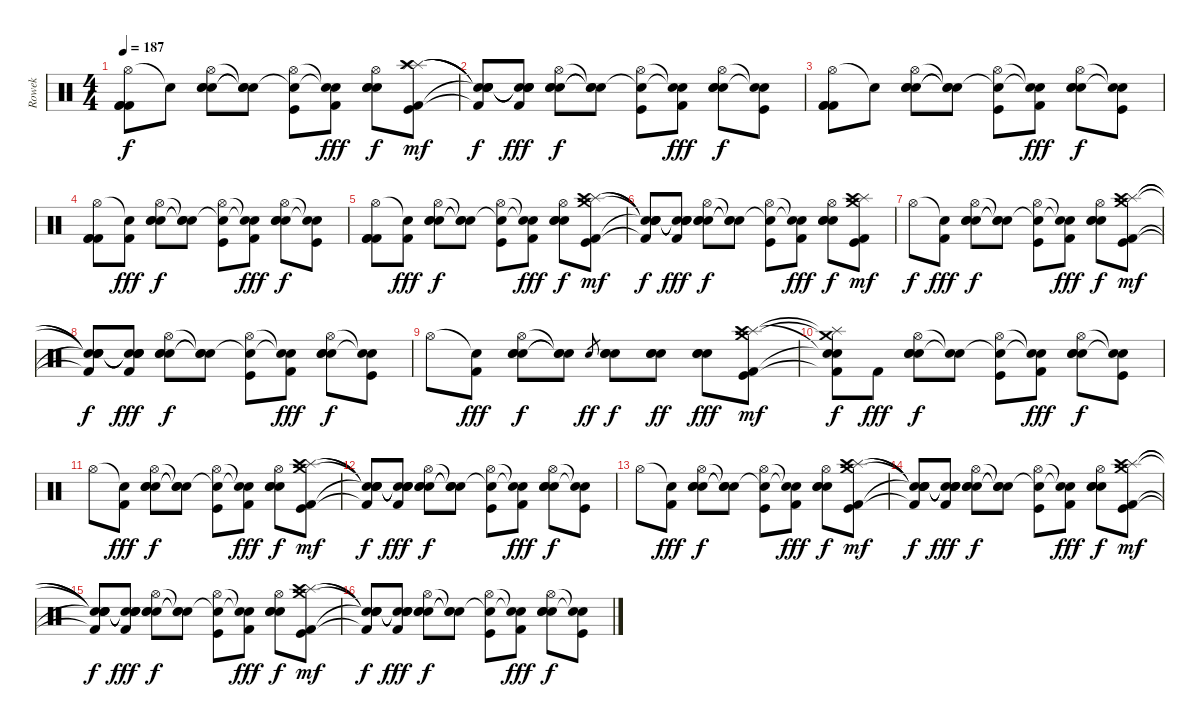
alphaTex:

\track ("Rowek" "Rowek") {instrument percussion}
\staff {score}
\articulation defaults
\ts (4 4)
\tempo 187
\clef neutral
\ks c
("Hi-Hat (open)" "Kick (hit) 2" "Kick (hit) 2" "Kick (hit) 2").8{dy f} "Snare (hit)"{t}.8 ("Hi-Hat (open)" "Electric Snare (hit)" "Electric Snare (hit)" "Electric Snare (hit)").8 ("Snare (hit)"{t} "Snare (hit)"{t} "Snare (hit)"{t}).8 ("Hi-Hat (open)" "Snare (hit)"{t} "Kick (hit)").8 ("Snare (hit)"{t} "Snare (hit)"{t} "Kick (hit) 2").8{dy fff} ("Hi-Hat (open)" "Electric Snare (hit)" "Electric Snare (hit)" "Electric Snare (hit)").8{dy f} ("Splash (hit)" "Splash (hit)" "Crash high (hit)" "Kick (hit) 2" "Kick (hit)").8{dy mf} |
("Snare (hit)"{t} "Snare (hit)"{t} "Snare (hit)"{t} "Snare (hit)"{t} "Kick (hit) 2"{t}).8{dy f} ("Snare (hit)"{t} "Snare (hit)"{t} "Snare (hit)"{t} "Snare (hit)"{t} "Kick (hit) 2").8{dy fff} ("Hi-Hat (open)" "Electric Snare (hit)" "Electric Snare (hit)" "Electric Snare (hit)").8{dy f} ("Snare (hit)"{t} "Snare (hit)"{t} "Snare (hit)"{t}).8 ("Hi-Hat (open)" "Snare (hit)"{t} "Kick (hit)").8 ("Snare (hit)"{t} "Snare (hit)"{t} "Kick (hit) 2").8{dy fff} ("Hi-Hat (open)" "Electric Snare (hit)" "Electric Snare (hit)" "Electric Snare (hit)").8{dy f} ("Snare (hit)"{t} "Snare (hit)"{t} "Kick (hit)").8 |
("Hi-Hat (open)" "Kick (hit) 2" "Kick (hit) 2" "Kick (hit) 2").8 "Snare (hit)"{t}.8 ("Hi-Hat (open)" "Electric Snare (hit)" "Electric Snare (hit)" "Electric Snare (hit)").8 ("Snare (hit)"{t} "Snare (hit)"{t} "Snare (hit)"{t}).8 ("Hi-Hat (open)" "Snare (hit)"{t} "Kick (hit)").8 ("Snare (hit)"{t} "Snare (hit)"{t} "Kick (hit) 2").8{dy fff} ("Hi-Hat (open)" "Electric Snare (hit)" "Electric Snare (hit)" "Electric Snare (hit)").8{dy f} ("Snare (hit)"{t} "Snare (hit)"{t} "Kick (hit)").8 |
("Hi-Hat (open)" "Kick (hit) 2" "Kick (hit) 2" "Kick (hit) 2").8 ("Snare (hit)"{t} "Kick (hit) 2").8{dy fff} ("Hi-Hat (open)" "Electric Snare (hit)" "Electric Snare (hit)" "Electric Snare (hit)").8{dy f} ("Snare (hit)"{t} "Snare (hit)"{t} "Snare (hit)"{t}).8 ("Hi-Hat (open)" "Snare (hit)"{t} "Kick (hit)").8 ("Snare (hit)"{t} "Snare (hit)"{t} "Kick (hit) 2").8{dy fff} ("Hi-Hat (open)" "Electric Snare (hit)" "Electric Snare (hit)" "Electric Snare (hit)").8{dy f} ("Snare (hit)"{t} "Snare (hit)"{t} "Kick (hit)").8 |
("Hi-Hat (open)" "Kick (hit) 2" "Kick (hit) 2" "Kick (hit) 2").8 ("Snare (hit)"{t} "Kick (hit) 2").8{dy fff} ("Hi-Hat (open)" "Electric Snare (hit)" "Electric Snare (hit)" "Electric Snare (hit)").8{dy f} ("Snare (hit)"{t} "Snare (hit)"{t} "Snare (hit)"{t}).8 ("Hi-Hat (open)" "Snare (hit)"{t} "Kick (hit)").8 ("Snare (hit)"{t} "Snare (hit)"{t} "Kick (hit) 2").8{dy fff} ("Hi-Hat (open)" "Electric Snare (hit)" "Electric Snare (hit)" "Electric Snare (hit)").8{dy f} ("Crash medium (hit)" "Splash (hit)" "Crash high (hit)" "Kick (hit) 2" "Kick (hit)").8{dy mf} |
("Snare (hit)"{t} "Snare (hit)"{t} "Snare (hit)"{t} "Snare (hit)"{t} "Kick (hit) 2"{t}).8{dy f} ("Snare (hit)"{t} "Snare (hit)"{t} "Snare (hit)"{t} "Snare (hit)"{t} "Kick (hit) 2").8{dy fff} ("Hi-Hat (open)" "Electric Snare (hit)" "Electric Snare (hit)" "Electric Snare (hit)").8{dy f} ("Snare (hit)"{t} "Snare (hit)"{t} "Snare (hit)"{t}).8 ("Hi-Hat (open)" "Snare (hit)"{t} "Kick (hit)").8 ("Snare (hit)"{t} "Snare (hit)"{t} "Kick (hit) 2").8{dy fff} ("Hi-Hat (open)" "Electric Snare (hit)" "Electric Snare (hit)" "Electric Snare (hit)").8{dy f} ("Crash medium (hit)" "Splash (hit)" "Crash high (hit)" "Kick (hit) 2" "Kick (hit)").8{dy mf} |
"Hi-Hat (open)".8{dy f} ("Snare (hit)"{t} "Kick (hit) 2").8{dy fff} ("Hi-Hat (open)" "Electric Snare (hit)" "Electric Snare (hit)" "Electric Snare (hit)").8{dy f} ("Snare (hit)"{t} "Snare (hit)"{t} "Snare (hit)"{t}).8 ("Hi-Hat (open)" "Snare (hit)"{t} "Kick (hit)").8 ("Snare (hit)"{t} "Snare (hit)"{t} "Kick (hit) 2").8{dy fff} ("Hi-Hat (open)" "Electric Snare (hit)" "Electric Snare (hit)" "Electric Snare (hit)").8{dy f} ("Crash medium (hit)" "Splash (hit)" "Crash high (hit)" "Kick (hit) 2" "Kick (hit)").8{dy mf} |
("Snare (hit)"{t} "Snare (hit)"{t} "Snare (hit)"{t} "Snare (hit)"{t} "Kick (hit) 2"{t}).8{dy f} ("Snare (hit)"{t} "Snare (hit)"{t} "Snare (hit)"{t} "Snare (hit)"{t} "Kick (hit) 2").8{dy fff} ("Hi-Hat (open)" "Electric Snare (hit)" "Electric Snare (hit)" "Electric Snare (hit)").8{dy f} ("Snare (hit)"{t} "Snare (hit)"{t} "Snare (hit)"{t}).8 ("Hi-Hat (open)" "Snare (hit)"{t} "Kick (hit)").8 ("Snare (hit)"{t} "Snare (hit)"{t} "Kick (hit) 2").8{dy fff} ("Hi-Hat (open)" "Electric Snare (hit)" "Electric Snare (hit)" "Electric Snare (hit)").8{dy f} ("Snare (hit)"{t} "Snare (hit)"{t} "Kick (hit)").8 |
"Hi-Hat (open)".8 ("Snare (hit)"{t} "Kick (hit) 2").8{dy fff} ("Hi-Hat (open)" "Electric Snare (hit)" "Electric Snare (hit)" "Electric Snare (hit)").8{dy f} ("Snare (hit)"{t} "Snare (hit)"{t} "Snare (hit)"{t}).8 "Electric Snare (hit)".8{gr dy ff} ("Electric Snare (hit)" "Electric Snare (hit)" "Electric Snare (hit)").8{dy f} ("Electric Snare (hit)" "Electric Snare (hit)" "Electric Snare (hit)").8{dy ff} ("Electric Snare (hit)" "Electric Snare (hit)" "Electric Snare (hit)").8{dy fff} ("Crash medium (hit)" "Splash (hit)" "Crash high (hit)" "Kick (hit) 2" "Kick (hit)").8{dy mf} |
("Crash medium (hit)"{t} "Splash (hit)"{t} "Snare (hit)"{t} "Snare (hit)"{t} "Kick (hit) 2"{t}).8{dy f} "Kick (hit) 2".8{dy fff} ("Hi-Hat (open)" "Electric Snare (hit)" "Electric Snare (hit)" "Electric Snare (hit)").8{dy f} ("Snare (hit)"{t} "Snare (hit)"{t}).8 ("Hi-Hat (open)" "Snare (hit)"{t} "Kick (hit)").8 ("Snare (hit)"{t} "Snare (hit)"{t} "Kick (hit) 2").8{dy fff} ("Hi-Hat (open)" "Electric Snare (hit)" "Electric Snare (hit)" "Electric Snare (hit)").8{dy f} ("Snare (hit)"{t} "Snare (hit)"{t} "Kick (hit)").8 |
"Hi-Hat (open)".8 ("Snare (hit)"{t} "Kick (hit) 2").8{dy fff} ("Hi-Hat (open)" "Electric Snare (hit)" "Electric Snare (hit)" "Electric Snare (hit)").8{dy f} ("Snare (hit)"{t} "Snare (hit)"{t} "Snare (hit)"{t}).8 ("Hi-Hat (open)" "Snare (hit)"{t} "Kick (hit)").8 ("Snare (hit)"{t} "Snare (hit)"{t} "Kick (hit) 2").8{dy fff} ("Hi-Hat (open)" "Electric Snare (hit)" "Electric Snare (hit)" "Electric Snare (hit)").8{dy f} ("Crash medium (hit)" "Splash (hit)" "Crash high (hit)" "Kick (hit) 2" "Kick (hit)").8{dy mf} |
("Snare (hit)"{t} "Snare (hit)"{t} "Snare (hit)"{t} "Snare (hit)"{t} "Kick (hit) 2"{t}).8{dy f} ("Snare (hit)"{t} "Snare (hit)"{t} "Snare (hit)"{t} "Snare (hit)"{t} "Kick (hit) 2").8{dy fff} ("Hi-Hat (open)" "Electric Snare (hit)" "Electric Snare (hit)" "Electric Snare (hit)").8{dy f} ("Snare (hit)"{t} "Snare (hit)"{t} "Snare (hit)"{t}).8 ("Hi-Hat (open)" "Snare (hit)"{t} "Kick (hit)").8 ("Snare (hit)"{t} "Snare (hit)"{t} "Kick (hit) 2").8{dy fff} ("Hi-Hat (open)" "Electric Snare (hit)" "Electric Snare (hit)" "Electric Snare (hit)").8{dy f} ("Snare (hit)"{t} "Snare (hit)"{t} "Kick (hit)").8 |
"Hi-Hat (open)".8 ("Snare (hit)"{t} "Kick (hit) 2").8{dy fff} ("Hi-Hat (open)" "Electric Snare (hit)" "Electric Snare (hit)" "Electric Snare (hit)").8{dy f} ("Snare (hit)"{t} "Snare (hit)"{t} "Snare (hit)"{t}).8 ("Hi-Hat (open)" "Snare (hit)"{t} "Kick (hit)").8 ("Snare (hit)"{t} "Snare (hit)"{t} "Kick (hit) 2").8{dy fff} ("Hi-Hat (open)" "Electric Snare (hit)" "Electric Snare (hit)" "Electric Snare (hit)").8{dy f} ("Crash medium (hit)" "Splash (hit)" "Crash high (hit)" "Kick (hit) 2" "Kick (hit)").8{dy mf} |
("Snare (hit)"{t} "Snare (hit)"{t} "Snare (hit)"{t} "Snare (hit)"{t} "Kick (hit) 2"{t}).8{dy f} ("Snare (hit)"{t} "Snare (hit)"{t} "Snare (hit)"{t} "Snare (hit)"{t} "Kick (hit) 2").8{dy fff} ("Hi-Hat (open)" "Electric Snare (hit)" "Electric Snare (hit)" "Electric Snare (hit)").8{dy f} ("Snare (hit)"{t} "Snare (hit)"{t} "Snare (hit)"{t}).8 ("Hi-Hat (open)" "Snare (hit)"{t} "Kick (hit)").8 ("Snare (hit)"{t} "Snare (hit)"{t} "Kick (hit) 2").8{dy fff} ("Hi-Hat (open)" "Electric Snare (hit)" "Electric Snare (hit)" "Electric Snare (hit)").8{dy f} ("Crash medium (hit)" "Splash (hit)" "Crash high (hit)" "Kick (hit) 2" "Kick (hit)").8{dy mf} |
("Snare (hit)"{t} "Snare (hit)"{t} "Snare (hit)"{t} "Snare (hit)"{t} "Kick (hit) 2"{t}).8{dy f} ("Snare (hit)"{t} "Snare (hit)"{t} "Snare (hit)"{t} "Snare (hit)"{t} "Kick (hit) 2").8{dy fff} ("Hi-Hat (open)" "Electric Snare (hit)" "Electric Snare (hit)" "Electric Snare (hit)").8{dy f} ("Snare (hit)"{t} "Snare (hit)"{t} "Snare (hit)"{t}).8 ("Hi-Hat (open)" "Snare (hit)"{t} "Kick (hit)").8 ("Snare (hit)"{t} "Snare (hit)"{t} "Kick (hit) 2").8{dy fff} ("Hi-Hat (open)" "Electric Snare (hit)" "Electric Snare (hit)" "Electric Snare (hit)").8{dy f} ("Crash medium (hit)" "Splash (hit)" "Crash high (hit)" "Kick (hit) 2" "Kick (hit)").8{dy mf} |
("Snare (hit)"{t} "Snare (hit)"{t} "Snare (hit)"{t} "Snare (hit)"{t} "Kick (hit) 2"{t}).8{dy f} ("Snare (hit)"{t} "Snare (hit)"{t} "Snare (hit)"{t} "Snare (hit)"{t} "Kick (hit) 2").8{dy fff} ("Hi-Hat (open)" "Electric Snare (hit)" "Electric Snare (hit)" "Electric Snare (hit)").8{dy f} ("Snare (hit)"{t} "Snare (hit)"{t} "Snare (hit)"{t}).8 ("Hi-Hat (open)" "Snare (hit)"{t} "Kick (hit)").8 ("Snare (hit)"{t} "Snare (hit)"{t} "Kick (hit) 2").8{dy fff} ("Hi-Hat (open)" "Electric Snare (hit)" "Electric Snare (hit)" "Electric Snare (hit)").8{dy f} ("Snare (hit)"{t} "Snare (hit)"{t} "Kick (hit)").8
